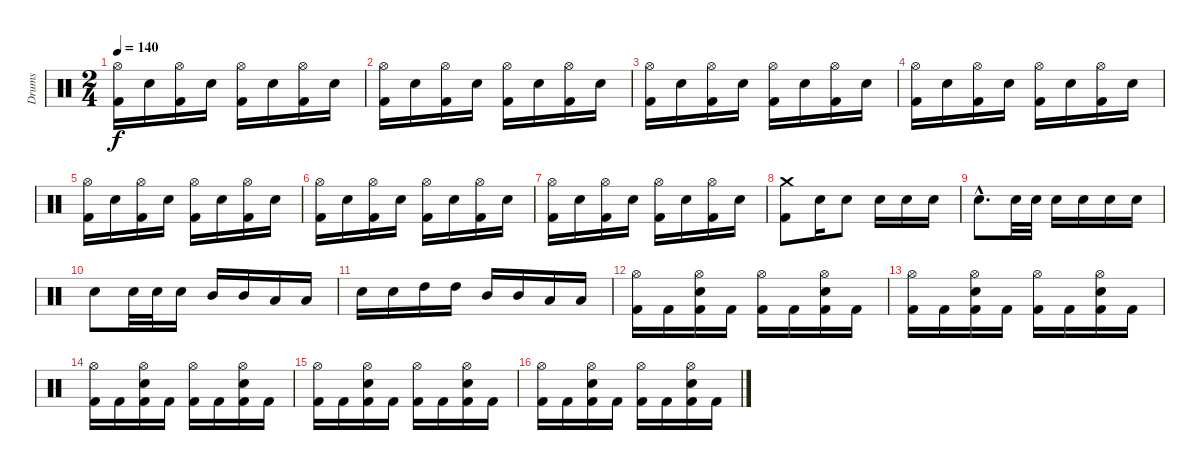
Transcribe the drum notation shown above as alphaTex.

\track ("Drums" "Drums") {instrument percussion}
\staff {score}
\articulation defaults
\ts (2 4)
\tempo 140
\clef neutral
\ks c
("Kick (hit) 2" "Hi-Hat (open)").16{dy f} "Electric Snare (hit)".16 ("Kick (hit) 2" "Hi-Hat (open)").16 "Electric Snare (hit)".16 ("Kick (hit) 2" "Hi-Hat (open)").16 "Electric Snare (hit)".16 ("Kick (hit) 2" "Hi-Hat (open)").16 "Electric Snare (hit)".16 |
("Kick (hit) 2" "Hi-Hat (open)").16 "Electric Snare (hit)".16 ("Kick (hit) 2" "Hi-Hat (open)").16 "Electric Snare (hit)".16 ("Kick (hit) 2" "Hi-Hat (open)").16 "Electric Snare (hit)".16 ("Kick (hit) 2" "Hi-Hat (open)").16 "Electric Snare (hit)".16 |
("Kick (hit) 2" "Hi-Hat (open)").16 "Electric Snare (hit)".16 ("Kick (hit) 2" "Hi-Hat (open)").16 "Electric Snare (hit)".16 ("Kick (hit) 2" "Hi-Hat (open)").16 "Electric Snare (hit)".16 ("Kick (hit) 2" "Hi-Hat (open)").16 "Electric Snare (hit)".16 |
("Kick (hit) 2" "Hi-Hat (open)").16 "Electric Snare (hit)".16 ("Kick (hit) 2" "Hi-Hat (open)").16 "Electric Snare (hit)".16 ("Kick (hit) 2" "Hi-Hat (open)").16 "Electric Snare (hit)".16 ("Kick (hit) 2" "Hi-Hat (open)").16 "Electric Snare (hit)".16 |
("Kick (hit) 2" "Hi-Hat (open)").16 "Electric Snare (hit)".16 ("Kick (hit) 2" "Hi-Hat (open)").16 "Electric Snare (hit)".16 ("Kick (hit) 2" "Hi-Hat (open)").16 "Electric Snare (hit)".16 ("Kick (hit) 2" "Hi-Hat (open)").16 "Electric Snare (hit)".16 |
("Kick (hit) 2" "Hi-Hat (open)").16 "Electric Snare (hit)".16 ("Kick (hit) 2" "Hi-Hat (open)").16 "Electric Snare (hit)".16 ("Kick (hit) 2" "Hi-Hat (open)").16 "Electric Snare (hit)".16 ("Kick (hit) 2" "Hi-Hat (open)").16 "Electric Snare (hit)".16 |
("Kick (hit) 2" "Hi-Hat (open)").16 "Electric Snare (hit)".16 ("Kick (hit) 2" "Hi-Hat (open)").16 "Electric Snare (hit)".16 ("Kick (hit) 2" "Hi-Hat (open)").16 "Electric Snare (hit)".16 ("Kick (hit) 2" "Hi-Hat (open)").16 "Electric Snare (hit)".16 |
("Kick (hit) 2" "Crash medium (hit)").8 "Electric Snare (hit)".16 "Electric Snare (hit)".8 "Electric Snare (hit)".16 "Electric Snare (hit)".16 "Electric Snare (hit)".16 |
"Electric Snare (hit)"{hac}.8{d} "Electric Snare (hit)".32 "Electric Snare (hit)".32 "Electric Snare (hit)".16 "Electric Snare (hit)".16 "Electric Snare (hit)".16 "Electric Snare (hit)".16 |
"Electric Snare (hit)".8 "Electric Snare (hit)".32 "Electric Snare (hit)".32 "Electric Snare (hit)".16 "Mid Tom (hit)".16 "Mid Tom (hit)".16 "Low Tom (hit)".16 "Low Tom (hit)".16 |
"Electric Snare (hit)".16 "Electric Snare (hit)".16 "High Tom (hit)".16 "High Tom (hit)".16 "Mid Tom (hit)".16 "Mid Tom (hit)".16 "Low Tom (hit)".16 "Low Tom (hit)".16 |
("Kick (hit) 2" "Hi-Hat (open)").16 "Kick (hit) 2".16 ("Kick (hit) 2" "Electric Snare (hit)" "Hi-Hat (open)").16 "Kick (hit) 2".16 ("Kick (hit) 2" "Hi-Hat (open)").16 "Kick (hit) 2".16 ("Kick (hit) 2" "Electric Snare (hit)" "Hi-Hat (open)").16 "Kick (hit) 2".16 |
("Kick (hit) 2" "Hi-Hat (open)").16 "Kick (hit) 2".16 ("Kick (hit) 2" "Electric Snare (hit)" "Hi-Hat (open)").16 "Kick (hit) 2".16 ("Kick (hit) 2" "Hi-Hat (open)").16 "Kick (hit) 2".16 ("Kick (hit) 2" "Electric Snare (hit)" "Hi-Hat (open)").16 "Kick (hit) 2".16 |
("Kick (hit) 2" "Hi-Hat (open)").16 "Kick (hit) 2".16 ("Kick (hit) 2" "Electric Snare (hit)" "Hi-Hat (open)").16 "Kick (hit) 2".16 ("Kick (hit) 2" "Hi-Hat (open)").16 "Kick (hit) 2".16 ("Kick (hit) 2" "Electric Snare (hit)" "Hi-Hat (open)").16 "Kick (hit) 2".16 |
("Kick (hit) 2" "Hi-Hat (open)").16 "Kick (hit) 2".16 ("Kick (hit) 2" "Electric Snare (hit)" "Hi-Hat (open)").16 "Kick (hit) 2".16 ("Kick (hit) 2" "Hi-Hat (open)").16 "Kick (hit) 2".16 ("Kick (hit) 2" "Electric Snare (hit)" "Hi-Hat (open)").16 "Kick (hit) 2".16 |
("Kick (hit) 2" "Hi-Hat (open)").16 "Kick (hit) 2".16 ("Kick (hit) 2" "Electric Snare (hit)" "Hi-Hat (open)").16 "Kick (hit) 2".16 ("Kick (hit) 2" "Hi-Hat (open)").16 "Kick (hit) 2".16 ("Kick (hit) 2" "Electric Snare (hit)" "Hi-Hat (open)").16 "Kick (hit) 2".16
